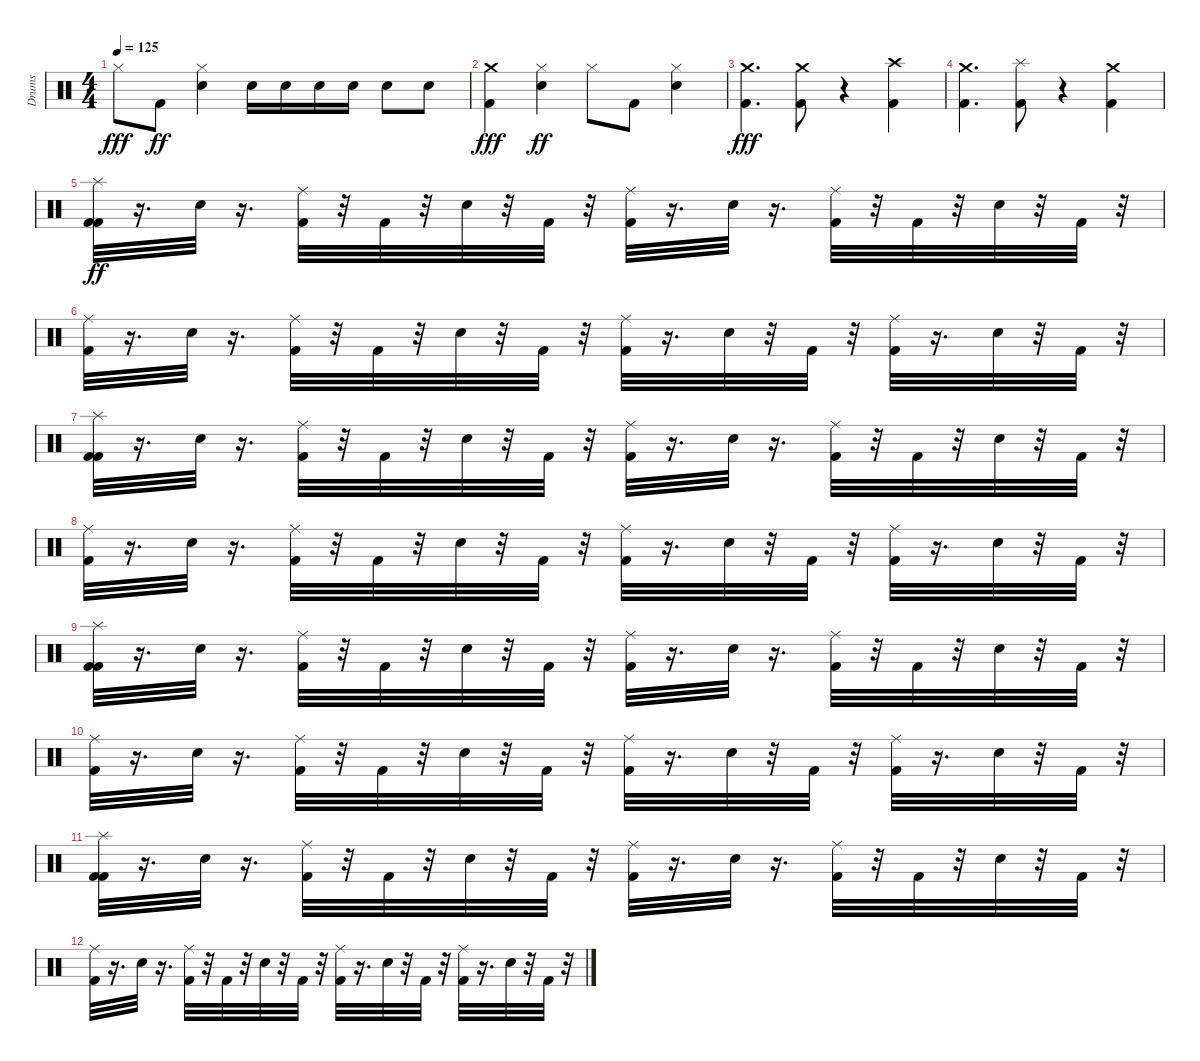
\track ("Drums" "Drums") {instrument percussion}
\staff {score}
\articulation defaults
\ts (4 4)
\tempo 125
\clef neutral
\ks c "Hi-Hat (closed)".8{dy fff} "Kick (hit) 2".8{dy ff}
("Electric Snare (hit)" "Hi-Hat (closed)").4 "Electric Snare (hit)".16 "Electric Snare (hit)".16 "Electric Snare (hit)".16 "Electric Snare (hit)".16 "Electric Snare (hit)".8 "Electric Snare (hit)".8 |
("Kick (hit) 2" "Crash medium (hit)").4{dy fff} ("Electric Snare (hit)" "Hi-Hat (closed)").4{dy ff} "Hi-Hat (closed)".8 "Kick (hit) 2".8 ("Electric Snare (hit)" "Hi-Hat (closed)").4 |
("Kick (hit) 2" "Crash medium (hit)").4{d dy fff} ("Kick (hit) 2" "Crash medium (hit)").8 r.4 ("Kick (hit) 2" "Crash high (hit)").4 |
("Kick (hit) 2" "Crash medium (hit)").4{d} ("Kick (hit) 2" "Splash (hit)").8 r.4 ("Kick (hit) 2" "Crash medium (hit)").4 |
("Splash (hit)" "Kick (hit) 2" "Kick (hit) 2").32{dy ff} r.16{d} "Electric Snare (hit)".32 r.16{d} ("Kick (hit) 2" "Ride (middle)").32 r.32 "Kick (hit) 2".32 r.32 "Electric Snare (hit)".32 r.32 "Kick (hit) 2".32 r.32 ("Kick (hit) 2" "Ride (middle)").32 r.16{d} "Electric Snare (hit)".32 r.16{d} ("Ride (middle)" "Kick (hit) 2").32 r.32 "Kick (hit) 2".32 r.32 "Electric Snare (hit)".32 r.32 "Kick (hit) 2".32 r.32 |
("Ride (middle)" "Kick (hit) 2").32 r.16{d} "Electric Snare (hit)".32 r.16{d} ("Ride (middle)" "Kick (hit) 2").32 r.32 "Kick (hit) 2".32 r.32 "Electric Snare (hit)".32 r.32 "Kick (hit) 2".32 r.32 ("Kick (hit) 2" "Ride (middle)").32 r.16{d} "Electric Snare (hit)".32 r.32 "Kick (hit) 2".32 r.32 ("Ride (middle)" "Kick (hit) 2").32 r.16{d} "Electric Snare (hit)".32 r.32 "Kick (hit) 2".32 r.32 |
("Kick (hit) 2" "Kick (hit) 2" "Splash (hit)").32 r.16{d} "Electric Snare (hit)".32 r.16{d} ("Ride (middle)" "Kick (hit) 2").32 r.32 "Kick (hit) 2".32 r.32 "Electric Snare (hit)".32 r.32 "Kick (hit) 2".32 r.32 ("Ride (middle)" "Kick (hit) 2").32 r.16{d} "Electric Snare (hit)".32 r.16{d} ("Ride (middle)" "Kick (hit) 2").32 r.32 "Kick (hit) 2".32 r.32 "Electric Snare (hit)".32 r.32 "Kick (hit) 2".32 r.32 |
("Ride (middle)" "Kick (hit) 2").32 r.16{d} "Electric Snare (hit)".32 r.16{d} ("Ride (middle)" "Kick (hit) 2").32 r.32 "Kick (hit) 2".32 r.32 "Electric Snare (hit)".32 r.32 "Kick (hit) 2".32 r.32 ("Ride (middle)" "Kick (hit) 2").32 r.16{d} "Electric Snare (hit)".32 r.32 "Kick (hit) 2".32 r.32 ("Ride (middle)" "Kick (hit) 2").32 r.16{d} "Electric Snare (hit)".32 r.32 "Kick (hit) 2".32 r.32 |
("Splash (hit)" "Kick (hit) 2" "Kick (hit) 2").32 r.16{d} "Electric Snare (hit)".32 r.16{d} ("Kick (hit) 2" "Ride (middle)").32 r.32 "Kick (hit) 2".32 r.32 "Electric Snare (hit)".32 r.32 "Kick (hit) 2".32 r.32 ("Kick (hit) 2" "Ride (middle)").32 r.16{d} "Electric Snare (hit)".32 r.16{d} ("Ride (middle)" "Kick (hit) 2").32 r.32 "Kick (hit) 2".32 r.32 "Electric Snare (hit)".32 r.32 "Kick (hit) 2".32 r.32 |
("Ride (middle)" "Kick (hit) 2").32 r.16{d} "Electric Snare (hit)".32 r.16{d} ("Ride (middle)" "Kick (hit) 2").32 r.32 "Kick (hit) 2".32 r.32 "Electric Snare (hit)".32 r.32 "Kick (hit) 2".32 r.32 ("Kick (hit) 2" "Ride (middle)").32 r.16{d} "Electric Snare (hit)".32 r.32 "Kick (hit) 2".32 r.32 ("Ride (middle)" "Kick (hit) 2").32 r.16{d} "Electric Snare (hit)".32 r.32 "Kick (hit) 2".32 r.32 |
("Kick (hit) 2" "Kick (hit) 2" "Splash (hit)").32 r.16{d} "Electric Snare (hit)".32 r.16{d} ("Ride (middle)" "Kick (hit) 2").32 r.32 "Kick (hit) 2".32 r.32 "Electric Snare (hit)".32 r.32 "Kick (hit) 2".32 r.32 ("Ride (middle)" "Kick (hit) 2").32 r.16{d} "Electric Snare (hit)".32 r.16{d} ("Ride (middle)" "Kick (hit) 2").32 r.32 "Kick (hit) 2".32 r.32 "Electric Snare (hit)".32 r.32 "Kick (hit) 2".32 r.32 |
("Ride (middle)" "Kick (hit) 2").32 r.16{d} "Electric Snare (hit)".32 r.16{d} ("Ride (middle)" "Kick (hit) 2").32 r.32 "Kick (hit) 2".32 r.32 "Electric Snare (hit)".32 r.32 "Kick (hit) 2".32 r.32 ("Ride (middle)" "Kick (hit) 2").32 r.16{d} "Electric Snare (hit)".32 r.32 "Kick (hit) 2".32 r.32 ("Ride (middle)" "Kick (hit) 2").32 r.16{d} "Electric Snare (hit)".32 r.32 "Kick (hit) 2".32 r.32
